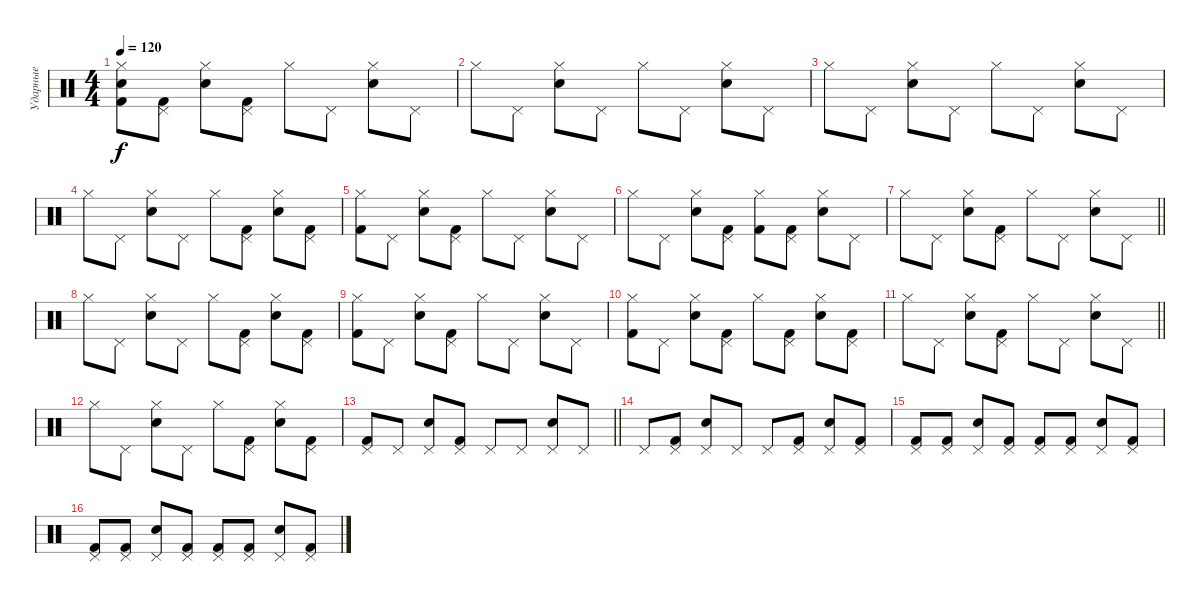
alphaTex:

\track ("Ударные" "Ударные") {instrument percussion}
\staff {score}
\articulation defaults
\ts (4 4)
\tempo 120
\clef neutral
\ks c
("Kick (hit) 2" "Snare (hit) 2" "Hi-Hat (closed)").8{dy f} ("Kick (hit) 2" "Pedal Hi-Hat (hit)").8 ("Snare (hit) 2" "Hi-Hat (closed)").8 ("Kick (hit) 2" "Pedal Hi-Hat (hit)").8 "Hi-Hat (closed)".8 "Pedal Hi-Hat (hit)".8 ("Snare (hit) 2" "Hi-Hat (closed)").8 "Pedal Hi-Hat (hit)".8 |
"Hi-Hat (closed)".8 "Pedal Hi-Hat (hit)".8 ("Snare (hit) 2" "Hi-Hat (closed)").8 "Pedal Hi-Hat (hit)".8 "Hi-Hat (closed)".8 "Pedal Hi-Hat (hit)".8 ("Snare (hit) 2" "Hi-Hat (closed)").8 "Pedal Hi-Hat (hit)".8 |
"Hi-Hat (closed)".8 "Pedal Hi-Hat (hit)".8 ("Snare (hit) 2" "Hi-Hat (closed)").8 "Pedal Hi-Hat (hit)".8 "Hi-Hat (closed)".8 "Pedal Hi-Hat (hit)".8 ("Snare (hit) 2" "Hi-Hat (closed)").8 "Pedal Hi-Hat (hit)".8 |
"Hi-Hat (closed)".8 "Pedal Hi-Hat (hit)".8 ("Snare (hit) 2" "Hi-Hat (closed)").8 "Pedal Hi-Hat (hit)".8 "Hi-Hat (closed)".8 ("Kick (hit) 2" "Pedal Hi-Hat (hit)").8 ("Snare (hit) 2" "Hi-Hat (closed)").8 ("Kick (hit) 2" "Pedal Hi-Hat (hit)").8 |
("Kick (hit) 2" "Hi-Hat (closed)").8 "Pedal Hi-Hat (hit)".8 ("Snare (hit) 2" "Hi-Hat (closed)").8 ("Kick (hit) 2" "Pedal Hi-Hat (hit)").8 "Hi-Hat (closed)".8 "Pedal Hi-Hat (hit)".8 ("Snare (hit) 2" "Hi-Hat (closed)").8 "Pedal Hi-Hat (hit)".8 |
"Hi-Hat (closed)".8 "Pedal Hi-Hat (hit)".8 ("Snare (hit) 2" "Hi-Hat (closed)").8 ("Kick (hit) 2" "Pedal Hi-Hat (hit)").8 ("Kick (hit) 2" "Hi-Hat (closed)").8 ("Kick (hit) 2" "Pedal Hi-Hat (hit)").8 ("Snare (hit) 2" "Hi-Hat (closed)").8 "Pedal Hi-Hat (hit)".8 |
\barLineRight lightlight "Hi-Hat (closed)".8 "Pedal Hi-Hat (hit)".8
("Snare (hit) 2" "Hi-Hat (closed)").8 ("Kick (hit) 2" "Pedal Hi-Hat (hit)").8 "Hi-Hat (closed)".8 "Pedal Hi-Hat (hit)".8 ("Snare (hit) 2" "Hi-Hat (closed)").8 "Pedal Hi-Hat (hit)".8 |
"Hi-Hat (closed)".8 "Pedal Hi-Hat (hit)".8 ("Snare (hit) 2" "Hi-Hat (closed)").8 "Pedal Hi-Hat (hit)".8 "Hi-Hat (closed)".8 ("Kick (hit) 2" "Pedal Hi-Hat (hit)").8 ("Snare (hit) 2" "Hi-Hat (closed)").8 ("Kick (hit) 2" "Pedal Hi-Hat (hit)").8 |
("Kick (hit) 2" "Hi-Hat (closed)").8 "Pedal Hi-Hat (hit)".8 ("Snare (hit) 2" "Hi-Hat (closed)").8 ("Kick (hit) 2" "Pedal Hi-Hat (hit)").8 "Hi-Hat (closed)".8 "Pedal Hi-Hat (hit)".8 ("Snare (hit) 2" "Hi-Hat (closed)").8 "Pedal Hi-Hat (hit)".8 |
("Kick (hit) 2" "Hi-Hat (closed)").8 "Pedal Hi-Hat (hit)".8 ("Snare (hit) 2" "Hi-Hat (closed)").8 ("Kick (hit) 2" "Pedal Hi-Hat (hit)").8 "Hi-Hat (closed)".8 ("Kick (hit) 2" "Pedal Hi-Hat (hit)").8 ("Snare (hit) 2" "Hi-Hat (closed)").8 ("Kick (hit) 2" "Pedal Hi-Hat (hit)").8 |
\barLineRight lightlight "Hi-Hat (closed)".8 "Pedal Hi-Hat (hit)".8
("Snare (hit) 2" "Hi-Hat (closed)").8 ("Kick (hit) 2" "Pedal Hi-Hat (hit)").8 "Hi-Hat (closed)".8 "Pedal Hi-Hat (hit)".8 ("Snare (hit) 2" "Hi-Hat (closed)").8 "Pedal Hi-Hat (hit)".8 |
"Hi-Hat (closed)".8 "Pedal Hi-Hat (hit)".8 ("Snare (hit) 2" "Hi-Hat (closed)").8 "Pedal Hi-Hat (hit)".8 "Hi-Hat (closed)".8 ("Kick (hit) 2" "Pedal Hi-Hat (hit)").8 ("Snare (hit) 2" "Hi-Hat (closed)").8 ("Kick (hit) 2" "Pedal Hi-Hat (hit)").8 |
\barLineRight lightlight
("Kick (hit) 2" "Pedal Hi-Hat (hit)").8 "Pedal Hi-Hat (hit)".8 ("Snare (hit) 2" "Pedal Hi-Hat (hit)").8 ("Kick (hit) 2" "Pedal Hi-Hat (hit)").8 "Pedal Hi-Hat (hit)".8 "Pedal Hi-Hat (hit)".8 ("Snare (hit) 2" "Pedal Hi-Hat (hit)").8 "Pedal Hi-Hat (hit)".8 |
"Pedal Hi-Hat (hit)".8 ("Kick (hit) 2" "Pedal Hi-Hat (hit)").8 ("Snare (hit) 2" "Pedal Hi-Hat (hit)").8 "Pedal Hi-Hat (hit)".8 "Pedal Hi-Hat (hit)".8 ("Kick (hit) 2" "Pedal Hi-Hat (hit)").8 ("Snare (hit) 2" "Pedal Hi-Hat (hit)").8 ("Kick (hit) 2" "Pedal Hi-Hat (hit)").8 |
("Kick (hit) 2" "Pedal Hi-Hat (hit)").8 ("Kick (hit) 2" "Pedal Hi-Hat (hit)").8 ("Snare (hit) 2" "Pedal Hi-Hat (hit)").8 ("Kick (hit) 2" "Pedal Hi-Hat (hit)").8 ("Kick (hit) 2" "Pedal Hi-Hat (hit)").8 ("Kick (hit) 2" "Pedal Hi-Hat (hit)").8 ("Snare (hit) 2" "Pedal Hi-Hat (hit)").8 ("Kick (hit) 2" "Pedal Hi-Hat (hit)").8 |
("Kick (hit) 2" "Pedal Hi-Hat (hit)").8 ("Kick (hit) 2" "Pedal Hi-Hat (hit)").8 ("Snare (hit) 2" "Pedal Hi-Hat (hit)").8 ("Kick (hit) 2" "Pedal Hi-Hat (hit)").8 ("Kick (hit) 2" "Pedal Hi-Hat (hit)").8 ("Kick (hit) 2" "Pedal Hi-Hat (hit)").8 ("Snare (hit) 2" "Pedal Hi-Hat (hit)").8 ("Kick (hit) 2" "Pedal Hi-Hat (hit)").8
